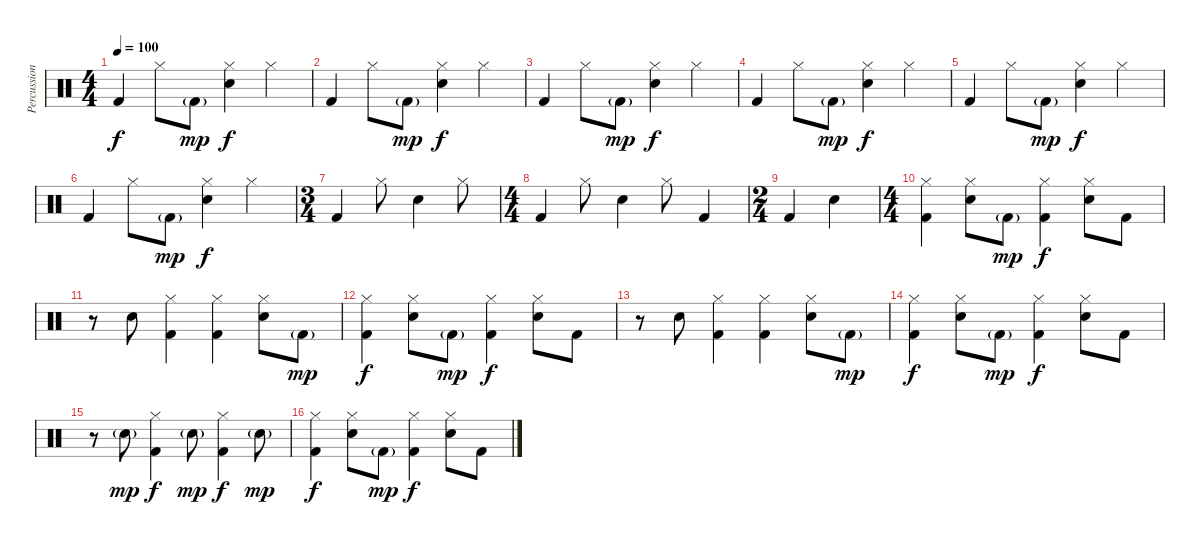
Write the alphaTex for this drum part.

\track ("Percussion" "Percussion") {instrument percussion}
\staff {score}
\articulation defaults
\ts (4 4)
\tempo 100
\clef neutral
\ks c "Kick (hit) 2".4{dy f} "Hi-Hat (closed)".8 "Kick (hit) 2"{g}.8{dy mp}
("Hi-Hat (closed)" "Snare (hit) 2").4{dy f} "Hi-Hat (closed)".4 |
"Kick (hit) 2".4 "Hi-Hat (closed)".8 "Kick (hit) 2"{g}.8{dy mp} ("Hi-Hat (closed)" "Snare (hit) 2").4{dy f} "Hi-Hat (closed)".4 |
"Kick (hit) 2".4 "Hi-Hat (closed)".8 "Kick (hit) 2"{g}.8{dy mp} ("Hi-Hat (closed)" "Snare (hit) 2").4{dy f} "Hi-Hat (closed)".4 |
"Kick (hit) 2".4 "Hi-Hat (closed)".8 "Kick (hit) 2"{g}.8{dy mp} ("Hi-Hat (closed)" "Snare (hit) 2").4{dy f} "Hi-Hat (closed)".4 |
"Kick (hit) 2".4 "Hi-Hat (closed)".8 "Kick (hit) 2"{g}.8{dy mp} ("Hi-Hat (closed)" "Snare (hit) 2").4{dy f} "Hi-Hat (closed)".4 |
"Kick (hit) 2".4 "Hi-Hat (closed)".8 "Kick (hit) 2"{g}.8{dy mp} ("Hi-Hat (closed)" "Snare (hit) 2").4{dy f} "Hi-Hat (closed)".4 |
\ts (3 4)
"Kick (hit) 2".4 "Hi-Hat (closed)".8 "Snare (hit) 2".4 "Hi-Hat (closed)".8 |
\ts (4 4)
"Kick (hit) 2".4 "Hi-Hat (closed)".8 "Snare (hit) 2".4 "Hi-Hat (closed)".8 "Kick (hit) 2".4 |
\ts (2 4)
"Kick (hit) 2".4 "Snare (hit) 2".4 |
\ts (4 4)
("Hi-Hat (closed)" "Kick (hit) 2").4 ("Hi-Hat (closed)" "Snare (hit) 2").8 "Kick (hit) 2"{g}.8{dy mp} ("Hi-Hat (closed)" "Kick (hit) 2").4{dy f} ("Hi-Hat (closed)" "Snare (hit) 2").8 "Kick (hit) 2".8 |
r.8 "Snare (hit) 2".8 ("Hi-Hat (closed)" "Kick (hit) 2").4 ("Hi-Hat (closed)" "Kick (hit) 2").4 ("Hi-Hat (closed)" "Snare (hit) 2").8 "Kick (hit) 2"{g}.8{dy mp} |
("Hi-Hat (closed)" "Kick (hit) 2").4{dy f} ("Hi-Hat (closed)" "Snare (hit) 2").8 "Kick (hit) 2"{g}.8{dy mp} ("Hi-Hat (closed)" "Kick (hit) 2").4{dy f} ("Hi-Hat (closed)" "Snare (hit) 2").8 "Kick (hit) 2".8 |
r.8 "Snare (hit) 2".8 ("Hi-Hat (closed)" "Kick (hit) 2").4 ("Hi-Hat (closed)" "Kick (hit) 2").4 ("Hi-Hat (closed)" "Snare (hit) 2").8 "Kick (hit) 2"{g}.8{dy mp} |
("Hi-Hat (closed)" "Kick (hit) 2").4{dy f} ("Hi-Hat (closed)" "Snare (hit) 2").8 "Kick (hit) 2"{g}.8{dy mp} ("Hi-Hat (closed)" "Kick (hit) 2").4{dy f} ("Hi-Hat (closed)" "Snare (hit) 2").8 "Kick (hit) 2".8 |
r.8 "Snare (hit) 2"{g}.8{dy mp} ("Hi-Hat (closed)" "Kick (hit) 2").4{dy f} "Snare (hit) 2"{g}.8{dy mp} ("Hi-Hat (closed)" "Kick (hit) 2").4{dy f} "Snare (hit) 2"{g}.8{dy mp} |
("Hi-Hat (closed)" "Kick (hit) 2").4{dy f} ("Hi-Hat (closed)" "Snare (hit) 2").8 "Kick (hit) 2"{g}.8{dy mp} ("Hi-Hat (closed)" "Kick (hit) 2").4{dy f} ("Hi-Hat (closed)" "Snare (hit) 2").8 "Kick (hit) 2".8
